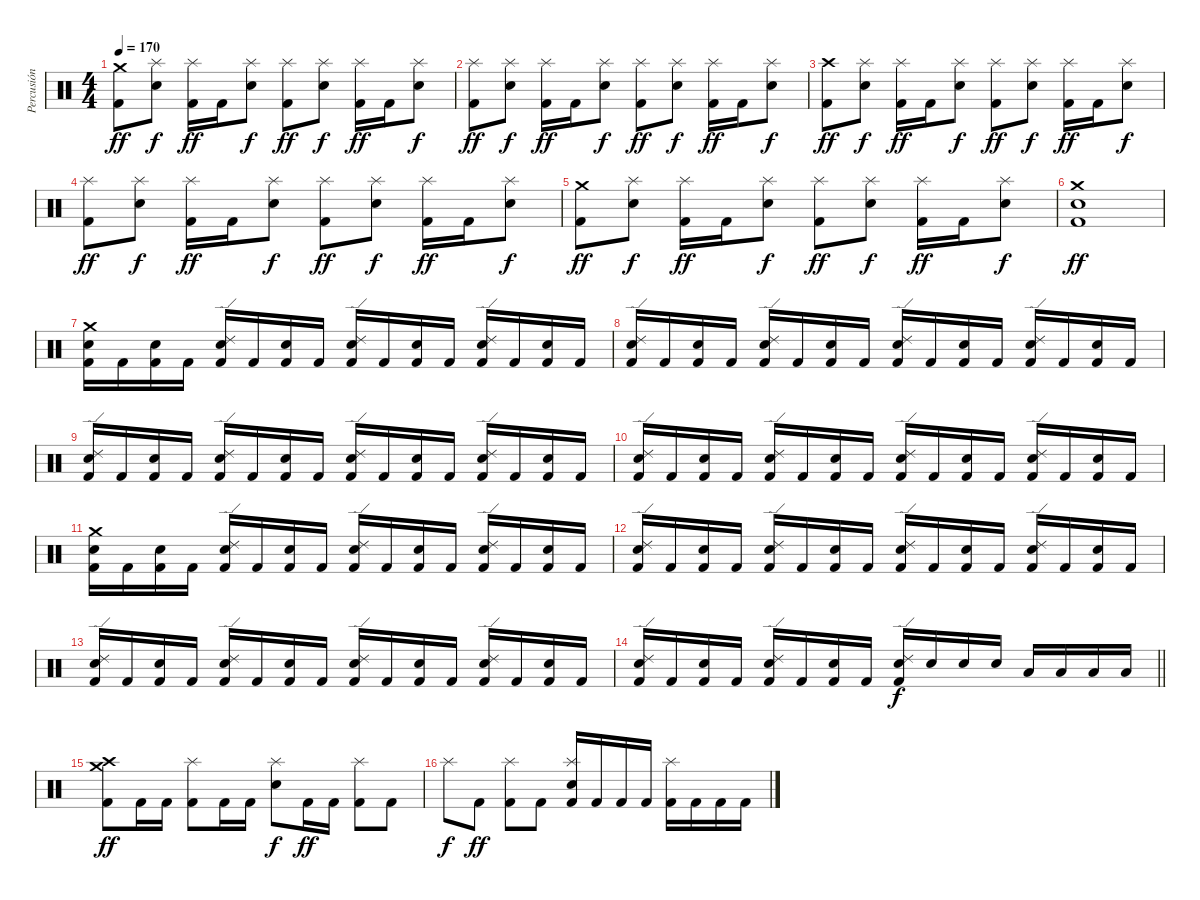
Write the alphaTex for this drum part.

\track ("Percusión" "Percusión") {instrument percussion}
\staff {score}
\articulation defaults
\ts (4 4)
\tempo 170
\clef neutral
\ks c
("Crash medium (hit)" "Kick (hit) 2").8{dy ff} ("Splash (hit)" "Snare (hit) 2").8{dy f} ("Splash (hit)" "Kick (hit) 2").16{dy ff} "Kick (hit) 2".16 ("Splash (hit)" "Snare (hit) 2").8{dy f} ("Splash (hit)" "Kick (hit) 2").8{dy ff} ("Splash (hit)" "Snare (hit) 2").8{dy f} ("Splash (hit)" "Kick (hit) 2").16{dy ff} "Kick (hit) 2".16 ("Splash (hit)" "Snare (hit) 2").8{dy f} |
("Splash (hit)" "Kick (hit) 2").8{dy ff} ("Splash (hit)" "Snare (hit) 2").8{dy f} ("Splash (hit)" "Kick (hit) 2").16{dy ff} "Kick (hit) 2".16 ("Splash (hit)" "Snare (hit) 2").8{dy f} ("Splash (hit)" "Kick (hit) 2").8{dy ff} ("Splash (hit)" "Snare (hit) 2").8{dy f} ("Splash (hit)" "Kick (hit) 2").16{dy ff} "Kick (hit) 2".16 ("Splash (hit)" "Snare (hit) 2").8{dy f} |
("Crash high (hit)" "Kick (hit) 2").8{dy ff} ("Splash (hit)" "Snare (hit) 2").8{dy f} ("Splash (hit)" "Kick (hit) 2").16{dy ff} "Kick (hit) 2".16 ("Splash (hit)" "Snare (hit) 2").8{dy f} ("Splash (hit)" "Kick (hit) 2").8{dy ff} ("Splash (hit)" "Snare (hit) 2").8{dy f} ("Splash (hit)" "Kick (hit) 2").16{dy ff} "Kick (hit) 2".16 ("Splash (hit)" "Snare (hit) 2").8{dy f} |
("Splash (hit)" "Kick (hit) 2").8{dy ff} ("Splash (hit)" "Snare (hit) 2").8{dy f} ("Splash (hit)" "Kick (hit) 2").16{dy ff} "Kick (hit) 2".16 ("Splash (hit)" "Snare (hit) 2").8{dy f} ("Splash (hit)" "Kick (hit) 2").8{dy ff} ("Splash (hit)" "Snare (hit) 2").8{dy f} ("Splash (hit)" "Kick (hit) 2").16{dy ff} "Kick (hit) 2".16 ("Splash (hit)" "Snare (hit) 2").8{dy f} |
("Crash medium (hit)" "Kick (hit) 2").8{dy ff} ("Splash (hit)" "Snare (hit) 2").8{dy f} ("Splash (hit)" "Kick (hit) 2").16{dy ff} "Kick (hit) 2".16 ("Splash (hit)" "Snare (hit) 2").8{dy f} ("Splash (hit)" "Kick (hit) 2").8{dy ff} ("Splash (hit)" "Snare (hit) 2").8{dy f} ("Splash (hit)" "Kick (hit) 2").16{dy ff} "Kick (hit) 2".16 ("Splash (hit)" "Snare (hit) 2").8{dy f} |
("Crash medium (hit)" "Snare (hit) 2" "Kick (hit) 2").1{dy ff} |
("Crash medium (hit)" "Snare (hit) 2" "Kick (hit) 2").16 "Kick (hit) 2".16 ("Snare (hit) 2" "Kick (hit) 2").16 "Kick (hit) 2".16 ("Ride (edge) 2" "Snare (hit) 2" "Kick (hit) 2").16 "Kick (hit) 2".16 ("Snare (hit) 2" "Kick (hit) 2").16 "Kick (hit) 2".16 ("Ride (edge) 2" "Snare (hit) 2" "Kick (hit) 2").16 "Kick (hit) 2".16 ("Snare (hit) 2" "Kick (hit) 2").16 "Kick (hit) 2".16 ("Ride (edge) 2" "Snare (hit) 2" "Kick (hit) 2").16 "Kick (hit) 2".16 ("Snare (hit) 2" "Kick (hit) 2").16 "Kick (hit) 2".16 |
("Ride (edge) 2" "Snare (hit) 2" "Kick (hit) 2").16 "Kick (hit) 2".16 ("Snare (hit) 2" "Kick (hit) 2").16 "Kick (hit) 2".16 ("Ride (edge) 2" "Snare (hit) 2" "Kick (hit) 2").16 "Kick (hit) 2".16 ("Snare (hit) 2" "Kick (hit) 2").16 "Kick (hit) 2".16 ("Ride (edge) 2" "Snare (hit) 2" "Kick (hit) 2").16 "Kick (hit) 2".16 ("Snare (hit) 2" "Kick (hit) 2").16 "Kick (hit) 2".16 ("Ride (edge) 2" "Snare (hit) 2" "Kick (hit) 2").16 "Kick (hit) 2".16 ("Snare (hit) 2" "Kick (hit) 2").16 "Kick (hit) 2".16 |
("Ride (edge) 2" "Snare (hit) 2" "Kick (hit) 2").16 "Kick (hit) 2".16 ("Snare (hit) 2" "Kick (hit) 2").16 "Kick (hit) 2".16 ("Ride (edge) 2" "Snare (hit) 2" "Kick (hit) 2").16 "Kick (hit) 2".16 ("Snare (hit) 2" "Kick (hit) 2").16 "Kick (hit) 2".16 ("Ride (edge) 2" "Snare (hit) 2" "Kick (hit) 2").16 "Kick (hit) 2".16 ("Snare (hit) 2" "Kick (hit) 2").16 "Kick (hit) 2".16 ("Ride (edge) 2" "Snare (hit) 2" "Kick (hit) 2").16 "Kick (hit) 2".16 ("Snare (hit) 2" "Kick (hit) 2").16 "Kick (hit) 2".16 |
("Ride (edge) 2" "Snare (hit) 2" "Kick (hit) 2").16 "Kick (hit) 2".16 ("Snare (hit) 2" "Kick (hit) 2").16 "Kick (hit) 2".16 ("Ride (edge) 2" "Snare (hit) 2" "Kick (hit) 2").16 "Kick (hit) 2".16 ("Snare (hit) 2" "Kick (hit) 2").16 "Kick (hit) 2".16 ("Ride (edge) 2" "Snare (hit) 2" "Kick (hit) 2").16 "Kick (hit) 2".16 ("Snare (hit) 2" "Kick (hit) 2").16 "Kick (hit) 2".16 ("Ride (edge) 2" "Snare (hit) 2" "Kick (hit) 2").16 "Kick (hit) 2".16 ("Snare (hit) 2" "Kick (hit) 2").16 "Kick (hit) 2".16 |
("Crash medium (hit)" "Snare (hit) 2" "Kick (hit) 2").16 "Kick (hit) 2".16 ("Snare (hit) 2" "Kick (hit) 2").16 "Kick (hit) 2".16 ("Ride (edge) 2" "Snare (hit) 2" "Kick (hit) 2").16 "Kick (hit) 2".16 ("Snare (hit) 2" "Kick (hit) 2").16 "Kick (hit) 2".16 ("Ride (edge) 2" "Snare (hit) 2" "Kick (hit) 2").16 "Kick (hit) 2".16 ("Snare (hit) 2" "Kick (hit) 2").16 "Kick (hit) 2".16 ("Ride (edge) 2" "Snare (hit) 2" "Kick (hit) 2").16 "Kick (hit) 2".16 ("Snare (hit) 2" "Kick (hit) 2").16 "Kick (hit) 2".16 |
("Ride (edge) 2" "Snare (hit) 2" "Kick (hit) 2").16 "Kick (hit) 2".16 ("Snare (hit) 2" "Kick (hit) 2").16 "Kick (hit) 2".16 ("Ride (edge) 2" "Snare (hit) 2" "Kick (hit) 2").16 "Kick (hit) 2".16 ("Snare (hit) 2" "Kick (hit) 2").16 "Kick (hit) 2".16 ("Ride (edge) 2" "Snare (hit) 2" "Kick (hit) 2").16 "Kick (hit) 2".16 ("Snare (hit) 2" "Kick (hit) 2").16 "Kick (hit) 2".16 ("Ride (edge) 2" "Snare (hit) 2" "Kick (hit) 2").16 "Kick (hit) 2".16 ("Snare (hit) 2" "Kick (hit) 2").16 "Kick (hit) 2".16 |
("Ride (edge) 2" "Snare (hit) 2" "Kick (hit) 2").16 "Kick (hit) 2".16 ("Snare (hit) 2" "Kick (hit) 2").16 "Kick (hit) 2".16 ("Ride (edge) 2" "Snare (hit) 2" "Kick (hit) 2").16 "Kick (hit) 2".16 ("Snare (hit) 2" "Kick (hit) 2").16 "Kick (hit) 2".16 ("Ride (edge) 2" "Snare (hit) 2" "Kick (hit) 2").16 "Kick (hit) 2".16 ("Snare (hit) 2" "Kick (hit) 2").16 "Kick (hit) 2".16 ("Ride (edge) 2" "Snare (hit) 2" "Kick (hit) 2").16 "Kick (hit) 2".16 ("Snare (hit) 2" "Kick (hit) 2").16 "Kick (hit) 2".16 |
\barLineRight lightlight
("Ride (edge) 2" "Snare (hit) 2" "Kick (hit) 2").16 "Kick (hit) 2".16 ("Snare (hit) 2" "Kick (hit) 2").16 "Kick (hit) 2".16 ("Ride (edge) 2" "Snare (hit) 2" "Kick (hit) 2").16 "Kick (hit) 2".16 ("Snare (hit) 2" "Kick (hit) 2").16 "Kick (hit) 2".16 ("Ride (edge) 2" "Snare (hit) 2" "Kick (hit) 2").16{dy f} "Snare (hit) 2".16 "Snare (hit) 2".16 "Snare (hit) 2".16 "Low Tom (hit)".16 "Low Tom (hit)".16 "Low Tom (hit)".16 "Low Tom (hit)".16 |
("Crash medium (hit)" "Crash high (hit)" "Kick (hit) 2").8{dy ff} "Kick (hit) 2".16 "Kick (hit) 2".16 ("Splash (hit)" "Kick (hit) 2").8 "Kick (hit) 2".16 "Kick (hit) 2".16 ("Splash (hit)" "Snare (hit) 2").8{dy f} "Kick (hit) 2".16{dy ff} "Kick (hit) 2".16 ("Splash (hit)" "Kick (hit) 2").8 "Kick (hit) 2".8 |
"Splash (hit)".8{dy f} "Kick (hit) 2".8{dy ff} ("Splash (hit)" "Kick (hit) 2").8 "Kick (hit) 2".8 ("Splash (hit)" "Snare (hit) 2" "Kick (hit) 2").16 "Kick (hit) 2".16 "Kick (hit) 2".16 "Kick (hit) 2".16 ("Splash (hit)" "Kick (hit) 2").16 "Kick (hit) 2".16 "Kick (hit) 2".16 "Kick (hit) 2".16
